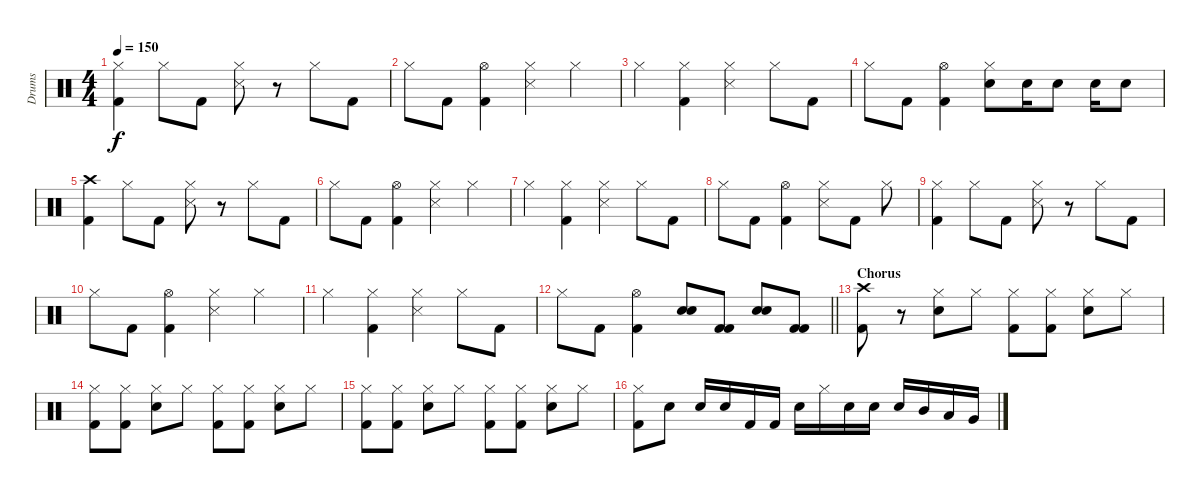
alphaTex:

\track ("Drums" "Drums") {instrument percussion}
\staff {score}
\articulation defaults
\ts (4 4)
\tempo 150
\clef neutral
\ks c
("Hi-Hat (closed)" "Kick (hit) 2").4{dy f} "Hi-Hat (closed)".8 "Kick (hit) 2".8 ("Hi-Hat (closed)" "Snare (side stick) 3").8 r.8 "Hi-Hat (closed)".8 "Kick (hit) 2".8 |
"Hi-Hat (closed)".8 "Kick (hit) 2".8 ("Hi-Hat (open)" "Kick (hit) 2").4 ("Hi-Hat (closed)" "Snare (side stick) 3").4 "Hi-Hat (closed)".4 |
"Hi-Hat (closed)".4 ("Hi-Hat (closed)" "Kick (hit) 2").4 ("Hi-Hat (closed)" "Snare (side stick) 3").4 "Hi-Hat (closed)".8 "Kick (hit) 2".8 |
"Hi-Hat (closed)".8 "Kick (hit) 2".8 ("Hi-Hat (open)" "Kick (hit) 2").4 ("Hi-Hat (closed)" "Snare (hit) 2").8 "Snare (hit) 2".16 "Snare (hit) 2".8 "Snare (hit) 2".16 "Snare (hit) 2".8 |
("Crash high (hit)" "Kick (hit) 2").4 "Hi-Hat (closed)".8 "Kick (hit) 2".8 ("Hi-Hat (closed)" "Snare (side stick) 3").8 r.8 "Hi-Hat (closed)".8 "Kick (hit) 2".8 |
"Hi-Hat (closed)".8 "Kick (hit) 2".8 ("Hi-Hat (open)" "Kick (hit) 2").4 ("Hi-Hat (closed)" "Snare (side stick) 3").4 "Hi-Hat (closed)".4 |
"Hi-Hat (closed)".4 ("Hi-Hat (closed)" "Kick (hit) 2").4 ("Hi-Hat (closed)" "Snare (side stick) 3").4 "Hi-Hat (closed)".8 "Kick (hit) 2".8 |
"Hi-Hat (closed)".8 "Kick (hit) 2".8 ("Hi-Hat (open)" "Kick (hit) 2").4 ("Hi-Hat (closed)" "Snare (side stick) 3").8 "Kick (hit) 2".8 "Hi-Hat (closed)".8 |
("Hi-Hat (closed)" "Kick (hit) 2").4 "Hi-Hat (closed)".8 "Kick (hit) 2".8 ("Hi-Hat (closed)" "Snare (side stick) 3").8 r.8 "Hi-Hat (closed)".8 "Kick (hit) 2".8 |
"Hi-Hat (closed)".8 "Kick (hit) 2".8 ("Hi-Hat (open)" "Kick (hit) 2").4 ("Hi-Hat (closed)" "Snare (side stick) 3").4 "Hi-Hat (closed)".4 |
"Hi-Hat (closed)".4 ("Hi-Hat (closed)" "Kick (hit) 2").4 ("Hi-Hat (closed)" "Snare (side stick) 3").4 "Hi-Hat (closed)".8 "Kick (hit) 2".8 |
\barLineRight lightlight "Hi-Hat (closed)".8 "Kick (hit) 2".8
("Hi-Hat (open)" "Kick (hit) 2").4 ("Snare (hit) 2" "Snare (hit) 2").8 ("Kick (hit) 2" "Kick (hit) 2").8 ("Snare (hit) 2" "Snare (hit) 2").8 ("Kick (hit) 2" "Kick (hit) 2").8 |
\section ("" "Chorus")
("Crash high (hit)" "Kick (hit) 2").8 r.8 ("Hi-Hat (closed)" "Snare (hit) 2").8 "Hi-Hat (closed)".8 ("Hi-Hat (closed)" "Kick (hit) 2").8 ("Hi-Hat (closed)" "Kick (hit) 2").8 ("Hi-Hat (closed)" "Snare (hit) 2").8 "Hi-Hat (closed)".8 |
("Hi-Hat (closed)" "Kick (hit) 2").8 ("Hi-Hat (closed)" "Kick (hit) 2").8 ("Hi-Hat (closed)" "Snare (hit) 2").8 "Hi-Hat (closed)".8 ("Hi-Hat (closed)" "Kick (hit) 2").8 ("Hi-Hat (closed)" "Kick (hit) 2").8 ("Hi-Hat (closed)" "Snare (hit) 2").8 "Hi-Hat (closed)".8 |
("Hi-Hat (closed)" "Kick (hit) 2").8 ("Hi-Hat (closed)" "Kick (hit) 2").8 ("Hi-Hat (closed)" "Snare (hit) 2").8 "Hi-Hat (closed)".8 ("Hi-Hat (closed)" "Kick (hit) 2").8 ("Hi-Hat (closed)" "Kick (hit) 2").8 ("Hi-Hat (closed)" "Snare (hit) 2").8 "Hi-Hat (closed)".8 |
("Hi-Hat (closed)" "Kick (hit) 2").8 "Snare (hit) 2".8 "Snare (hit) 2".16 "Snare (hit) 2".16 "Kick (hit) 2".16 "Kick (hit) 2".16 "Snare (hit) 2".16 "Hi-Hat (closed)".16 "Snare (hit) 2".16 "Snare (hit) 2".16 "Snare (hit) 2".16 "Mid Tom (hit)".16 "Low Tom (hit)".16 "Very Low Tom (hit)".16
